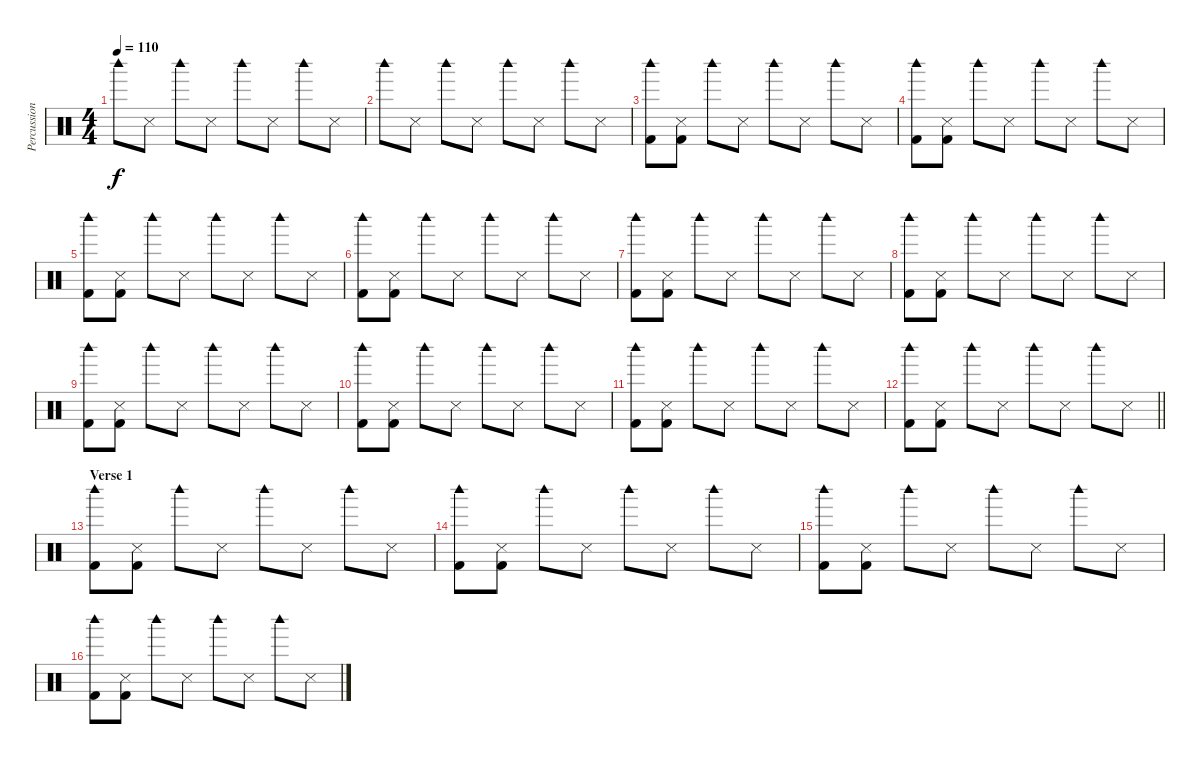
\track ("Percussion" "Percussion") {instrument percussion}
\staff {score}
\articulation defaults
\ts (4 4)
\tempo 110
\clef neutral
\ks c "Woodblock high (hit)".8{dy f} "Snare (side stick) 3".8 "Woodblock high (hit)".8 "Snare (side stick) 3".8 "Woodblock high (hit)".8 "Snare (side stick) 3".8 "Woodblock high (hit)".8 "Snare (side stick) 3".8
|
"Woodblock high (hit)".8 "Snare (side stick) 3".8 "Woodblock high (hit)".8 "Snare (side stick) 3".8 "Woodblock high (hit)".8 "Snare (side stick) 3".8 "Woodblock high (hit)".8 "Snare (side stick) 3".8 |
("Woodblock high (hit)" "Kick (hit) 2").8 ("Snare (side stick) 3" "Kick (hit) 2").8 "Woodblock high (hit)".8 "Snare (side stick) 3".8 "Woodblock high (hit)".8 "Snare (side stick) 3".8 "Woodblock high (hit)".8 "Snare (side stick) 3".8 |
("Woodblock high (hit)" "Kick (hit) 2").8 ("Snare (side stick) 3" "Kick (hit) 2").8 "Woodblock high (hit)".8 "Snare (side stick) 3".8 "Woodblock high (hit)".8 "Snare (side stick) 3".8 "Woodblock high (hit)".8 "Snare (side stick) 3".8 |
("Woodblock high (hit)" "Kick (hit) 2").8 ("Snare (side stick) 3" "Kick (hit) 2").8 "Woodblock high (hit)".8 "Snare (side stick) 3".8 "Woodblock high (hit)".8 "Snare (side stick) 3".8 "Woodblock high (hit)".8 "Snare (side stick) 3".8 |
("Woodblock high (hit)" "Kick (hit) 2").8 ("Snare (side stick) 3" "Kick (hit) 2").8 "Woodblock high (hit)".8 "Snare (side stick) 3".8 "Woodblock high (hit)".8 "Snare (side stick) 3".8 "Woodblock high (hit)".8 "Snare (side stick) 3".8 |
("Woodblock high (hit)" "Kick (hit) 2").8 ("Snare (side stick) 3" "Kick (hit) 2").8 "Woodblock high (hit)".8 "Snare (side stick) 3".8 "Woodblock high (hit)".8 "Snare (side stick) 3".8 "Woodblock high (hit)".8 "Snare (side stick) 3".8 |
("Woodblock high (hit)" "Kick (hit) 2").8 ("Snare (side stick) 3" "Kick (hit) 2").8 "Woodblock high (hit)".8 "Snare (side stick) 3".8 "Woodblock high (hit)".8 "Snare (side stick) 3".8 "Woodblock high (hit)".8 "Snare (side stick) 3".8 |
("Woodblock high (hit)" "Kick (hit) 2").8 ("Snare (side stick) 3" "Kick (hit) 2").8 "Woodblock high (hit)".8 "Snare (side stick) 3".8 "Woodblock high (hit)".8 "Snare (side stick) 3".8 "Woodblock high (hit)".8 "Snare (side stick) 3".8 |
("Woodblock high (hit)" "Kick (hit) 2").8 ("Snare (side stick) 3" "Kick (hit) 2").8 "Woodblock high (hit)".8 "Snare (side stick) 3".8 "Woodblock high (hit)".8 "Snare (side stick) 3".8 "Woodblock high (hit)".8 "Snare (side stick) 3".8 |
("Woodblock high (hit)" "Kick (hit) 2").8 ("Snare (side stick) 3" "Kick (hit) 2").8 "Woodblock high (hit)".8 "Snare (side stick) 3".8 "Woodblock high (hit)".8 "Snare (side stick) 3".8 "Woodblock high (hit)".8 "Snare (side stick) 3".8 |
\barLineRight lightlight
("Woodblock high (hit)" "Kick (hit) 2").8 ("Snare (side stick) 3" "Kick (hit) 2").8 "Woodblock high (hit)".8 "Snare (side stick) 3".8 "Woodblock high (hit)".8 "Snare (side stick) 3".8 "Woodblock high (hit)".8 "Snare (side stick) 3".8 |
\section ("" "Verse 1")
("Woodblock high (hit)" "Kick (hit) 2").8 ("Snare (side stick) 3" "Kick (hit) 2").8 "Woodblock high (hit)".8 "Snare (side stick) 3".8 "Woodblock high (hit)".8 "Snare (side stick) 3".8 "Woodblock high (hit)".8 "Snare (side stick) 3".8 |
("Woodblock high (hit)" "Kick (hit) 2").8 ("Snare (side stick) 3" "Kick (hit) 2").8 "Woodblock high (hit)".8 "Snare (side stick) 3".8 "Woodblock high (hit)".8 "Snare (side stick) 3".8 "Woodblock high (hit)".8 "Snare (side stick) 3".8 |
("Woodblock high (hit)" "Kick (hit) 2").8 ("Snare (side stick) 3" "Kick (hit) 2").8 "Woodblock high (hit)".8 "Snare (side stick) 3".8 "Woodblock high (hit)".8 "Snare (side stick) 3".8 "Woodblock high (hit)".8 "Snare (side stick) 3".8 |
("Woodblock high (hit)" "Kick (hit) 2").8 ("Snare (side stick) 3" "Kick (hit) 2").8 "Woodblock high (hit)".8 "Snare (side stick) 3".8 "Woodblock high (hit)".8 "Snare (side stick) 3".8 "Woodblock high (hit)".8 "Snare (side stick) 3".8
